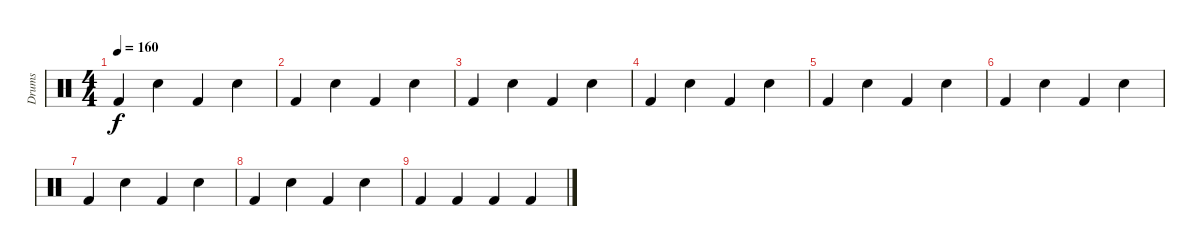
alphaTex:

\track ("Drums" "Drums") {instrument percussion}
\staff {score}
\articulation defaults
\ts (4 4)
\tempo 160
\clef neutral
\ks c "Kick (hit) 2".4{dy f} "Snare (hit) 2".4 "Kick (hit) 2".4 "Snare (hit) 2".4
|
"Kick (hit) 2".4 "Snare (hit) 2".4 "Kick (hit) 2".4 "Snare (hit) 2".4 |
"Kick (hit) 2".4 "Snare (hit) 2".4 "Kick (hit) 2".4 "Snare (hit) 2".4 |
"Kick (hit) 2".4 "Snare (hit) 2".4 "Kick (hit) 2".4 "Snare (hit) 2".4 |
"Kick (hit) 2".4 "Snare (hit) 2".4 "Kick (hit) 2".4 "Snare (hit) 2".4 |
"Kick (hit) 2".4 "Snare (hit) 2".4 "Kick (hit) 2".4 "Snare (hit) 2".4 |
"Kick (hit) 2".4 "Snare (hit) 2".4 "Kick (hit) 2".4 "Snare (hit) 2".4 |
"Kick (hit) 2".4 "Snare (hit) 2".4 "Kick (hit) 2".4 "Snare (hit) 2".4 |
"Kick (hit) 2".4 "Kick (hit) 2".4 "Kick (hit) 2".4 "Kick (hit) 2".4
